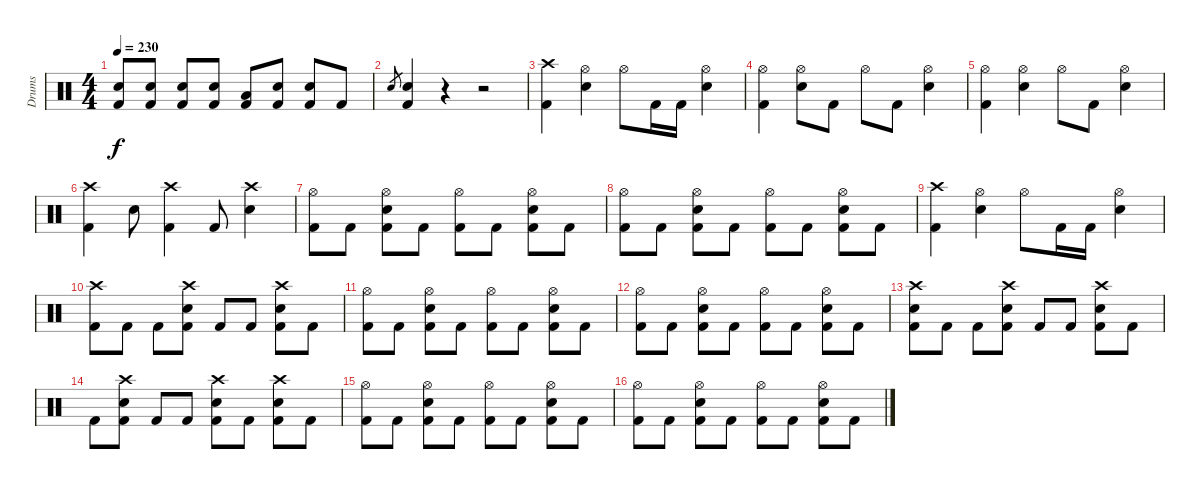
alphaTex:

\track ("Drums" "Drums") {instrument percussion}
\staff {score}
\articulation defaults
\ts (4 4)
\tempo 230
\clef neutral
\ks c
("Electric Snare (hit)" "Kick (hit) 2").8{dy f} ("Electric Snare (hit)" "Kick (hit) 2").8 ("Electric Snare (hit)" "Kick (hit) 2").8 ("Electric Snare (hit)" "Kick (hit) 2").8 ("Low Tom (hit)" "Kick (hit) 2").8 ("Electric Snare (hit)" "Kick (hit) 2").8 ("Electric Snare (hit)" "Kick (hit) 2").8 "Kick (hit) 2".8 |
"Electric Snare (hit)".8{gr} ("Electric Snare (hit)" "Kick (hit) 2").4 r.4 r.2 |
("Crash high (hit)" "Kick (hit) 2").4 ("Hi-Hat (open)" "Electric Snare (hit)").4 "Hi-Hat (open)".8 "Kick (hit) 2".16 "Kick (hit) 2".16 ("Hi-Hat (open)" "Electric Snare (hit)").4 |
("Hi-Hat (open)" "Kick (hit) 2").4 ("Hi-Hat (open)" "Electric Snare (hit)").8 "Kick (hit) 2".8 "Hi-Hat (open)".8 "Kick (hit) 2".8 ("Hi-Hat (open)" "Electric Snare (hit)").4 |
("Hi-Hat (open)" "Kick (hit) 2").4 ("Hi-Hat (open)" "Electric Snare (hit)").4 "Hi-Hat (open)".8 "Kick (hit) 2".8 ("Hi-Hat (open)" "Electric Snare (hit)").4 |
("Crash high (hit)" "Kick (hit) 2").4 "Electric Snare (hit)".8 ("Crash high (hit)" "Kick (hit) 2").4 "Kick (hit) 2".8 ("Crash high (hit)" "Electric Snare (hit)").4 |
("Hi-Hat (open)" "Kick (hit) 2").8 "Kick (hit) 2".8 ("Hi-Hat (open)" "Electric Snare (hit)" "Kick (hit) 2").8 "Kick (hit) 2".8 ("Hi-Hat (open)" "Kick (hit) 2").8 "Kick (hit) 2".8 ("Hi-Hat (open)" "Electric Snare (hit)" "Kick (hit) 2").8 "Kick (hit) 2".8 |
("Hi-Hat (open)" "Kick (hit) 2").8 "Kick (hit) 2".8 ("Hi-Hat (open)" "Electric Snare (hit)" "Kick (hit) 2").8 "Kick (hit) 2".8 ("Hi-Hat (open)" "Kick (hit) 2").8 "Kick (hit) 2".8 ("Hi-Hat (open)" "Electric Snare (hit)" "Kick (hit) 2").8 "Kick (hit) 2".8 |
("Crash high (hit)" "Kick (hit) 2").4 ("Hi-Hat (open)" "Electric Snare (hit)").4 "Hi-Hat (open)".8 "Kick (hit) 2".16 "Kick (hit) 2".16 ("Hi-Hat (open)" "Electric Snare (hit)").4 |
("Crash high (hit)" "Kick (hit) 2").8 "Kick (hit) 2".8 "Kick (hit) 2".8 ("Crash high (hit)" "Electric Snare (hit)" "Kick (hit) 2").8 "Kick (hit) 2".8 "Kick (hit) 2".8 ("Crash high (hit)" "Electric Snare (hit)" "Kick (hit) 2").8 "Kick (hit) 2".8 |
("Hi-Hat (open)" "Kick (hit) 2").8 "Kick (hit) 2".8 ("Hi-Hat (open)" "Electric Snare (hit)" "Kick (hit) 2").8 "Kick (hit) 2".8 ("Hi-Hat (open)" "Kick (hit) 2").8 "Kick (hit) 2".8 ("Hi-Hat (open)" "Electric Snare (hit)" "Kick (hit) 2").8 "Kick (hit) 2".8 |
("Hi-Hat (open)" "Kick (hit) 2").8 "Kick (hit) 2".8 ("Hi-Hat (open)" "Electric Snare (hit)" "Kick (hit) 2").8 "Kick (hit) 2".8 ("Hi-Hat (open)" "Kick (hit) 2").8 "Kick (hit) 2".8 ("Hi-Hat (open)" "Electric Snare (hit)" "Kick (hit) 2").8 "Kick (hit) 2".8 |
("Crash high (hit)" "Electric Snare (hit)" "Kick (hit) 2").8 "Kick (hit) 2".8 "Kick (hit) 2".8 ("Crash high (hit)" "Electric Snare (hit)" "Kick (hit) 2").8 "Kick (hit) 2".8 "Kick (hit) 2".8 ("Crash high (hit)" "Electric Snare (hit)" "Kick (hit) 2").8 "Kick (hit) 2".8 |
"Kick (hit) 2".8 ("Crash high (hit)" "Electric Snare (hit)" "Kick (hit) 2").8 "Kick (hit) 2".8 "Kick (hit) 2".8 ("Crash high (hit)" "Electric Snare (hit)" "Kick (hit) 2").8 "Kick (hit) 2".8 ("Crash high (hit)" "Electric Snare (hit)" "Kick (hit) 2").8 "Kick (hit) 2".8 |
("Hi-Hat (open)" "Kick (hit) 2").8 "Kick (hit) 2".8 ("Hi-Hat (open)" "Electric Snare (hit)" "Kick (hit) 2").8 "Kick (hit) 2".8 ("Hi-Hat (open)" "Kick (hit) 2").8 "Kick (hit) 2".8 ("Hi-Hat (open)" "Electric Snare (hit)" "Kick (hit) 2").8 "Kick (hit) 2".8 |
("Hi-Hat (open)" "Kick (hit) 2").8 "Kick (hit) 2".8 ("Hi-Hat (open)" "Electric Snare (hit)" "Kick (hit) 2").8 "Kick (hit) 2".8 ("Hi-Hat (open)" "Kick (hit) 2").8 "Kick (hit) 2".8 ("Hi-Hat (open)" "Electric Snare (hit)" "Kick (hit) 2").8 "Kick (hit) 2".8
